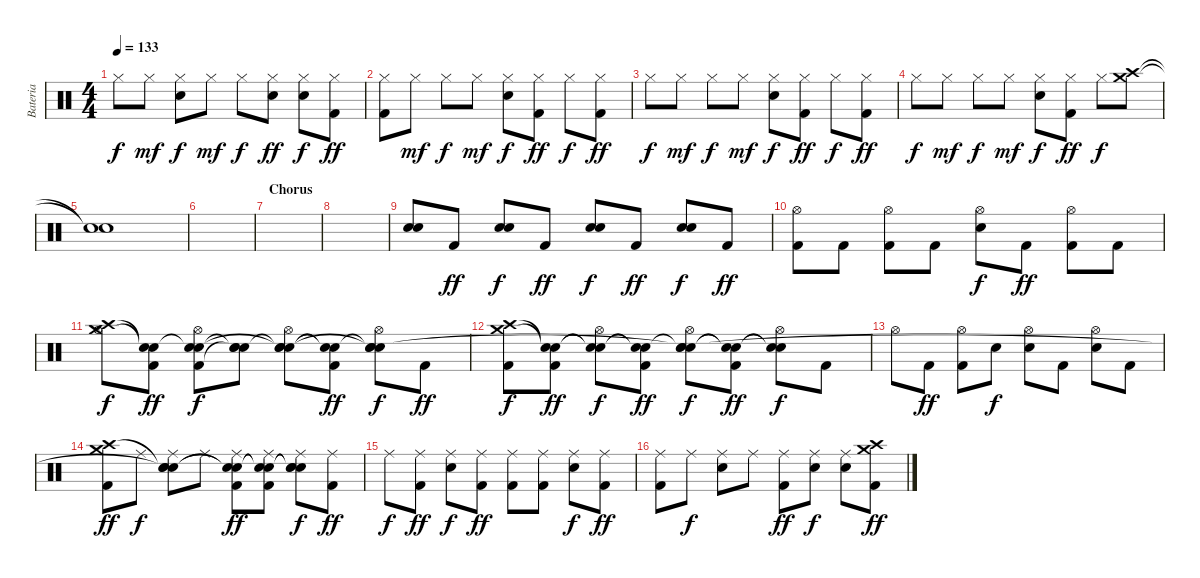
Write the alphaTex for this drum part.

\track ("Bateria" "Bateria") {instrument percussion}
\staff {score}
\articulation defaults
\ts (4 4)
\tempo 133
\clef neutral
\ks c "Hi-Hat (closed)".8{dy f} "Hi-Hat (closed)".8{dy mf}
("Hi-Hat (closed)" "Snare (hit) 2").8{dy f} "Hi-Hat (closed)".8{dy mf} "Hi-Hat (closed)".8{dy f} ("Hi-Hat (closed)" "Snare (hit) 2").8{dy ff} ("Hi-Hat (closed)" "Snare (hit) 2").8{dy f} ("Hi-Hat (closed)" "Kick (hit) 2").8{dy ff} |
("Hi-Hat (closed)" "Kick (hit) 2").8 "Hi-Hat (closed)".8{dy mf} "Hi-Hat (closed)".8{dy f} "Hi-Hat (closed)".8{dy mf} ("Hi-Hat (closed)" "Snare (hit) 2").8{dy f} ("Hi-Hat (closed)" "Kick (hit) 2").8{dy ff} "Hi-Hat (closed)".8{dy f} ("Hi-Hat (closed)" "Kick (hit) 2").8{dy ff} |
"Hi-Hat (closed)".8{dy f} "Hi-Hat (closed)".8{dy mf} "Hi-Hat (closed)".8{dy f} "Hi-Hat (closed)".8{dy mf} ("Hi-Hat (closed)" "Snare (hit) 2").8{dy f} ("Hi-Hat (closed)" "Kick (hit) 2").8{dy ff} "Hi-Hat (closed)".8{dy f} ("Hi-Hat (closed)" "Kick (hit) 2").8{dy ff} |
"Hi-Hat (closed)".8{dy f} "Hi-Hat (closed)".8{dy mf} "Hi-Hat (closed)".8{dy f} "Hi-Hat (closed)".8{dy mf} ("Hi-Hat (closed)" "Snare (hit) 2").8{dy f} ("Hi-Hat (closed)" "Kick (hit) 2").8{dy ff} "Hi-Hat (closed)".8{dy f} ("Crash medium (hit)" "Crash high (hit)").8 |
("Snare (hit)"{t} "Snare (hit)"{t}).1 |
|
\section ("" "Chorus")
|
|
("Snare (hit) 2" "Snare (hit) 2").8 "Kick (hit) 2".8{dy ff} ("Snare (hit) 2" "Snare (hit) 2").8{dy f} "Kick (hit) 2".8{dy ff} ("Snare (hit) 2" "Snare (hit) 2").8{dy f} "Kick (hit) 2".8{dy ff} ("Snare (hit) 2" "Snare (hit) 2").8{dy f} "Kick (hit) 2".8{dy ff} |
("Hi-Hat (open)" "Kick (hit) 2").8 "Kick (hit) 2".8 ("Hi-Hat (open)" "Kick (hit) 2").8 "Kick (hit) 2".8 ("Hi-Hat (open)" "Snare (hit) 2").8{dy f} "Kick (hit) 2".8{dy ff} ("Hi-Hat (open)" "Kick (hit) 2").8 "Kick (hit) 2".8 |
("Hi-Hat (open)" "Crash medium (hit)" "Crash high (hit)").8{dy f} ("Kick (hit) 2" "Snare (hit)"{t} "Snare (hit)"{t}).8{dy ff} ("Hi-Hat (open)" "Kick (hit) 2" "Snare (hit)"{t} "Snare (hit)").8{dy f} ("Snare (hit) 2" "Snare (hit)"{t} "Snare (hit)"{t}).8 ("Hi-Hat (open)" "Snare (hit) 2" "Snare (hit)"{t} "Snare (hit)"{t}).8 ("Kick (hit) 2" "Snare (hit)"{t} "Snare (hit)"{t}).8{dy ff} ("Hi-Hat (open)" "Snare (hit) 2" "Snare (hit)"{t} "Snare (hit)"{t}).8{dy f} "Kick (hit) 2".8{dy ff} |
("Kick (hit) 2" "Crash high (hit)" "Crash medium (hit)").8{dy f} ("Kick (hit) 2" "Snare (hit)"{t} "Snare (hit)"{t}).8{dy ff} ("Hi-Hat (open)" "Snare (hit)"{t} "Snare (hit)"{t}).8{dy f} ("Kick (hit) 2" "Snare (hit)"{t} "Snare (hit)"{t}).8{dy ff} ("Hi-Hat (open)" "Snare (hit) 2" "Snare (hit)"{t} "Snare (hit)"{t}).8{dy f} ("Kick (hit) 2" "Snare (hit)"{t} "Snare (hit)"{t}).8{dy ff} ("Hi-Hat (open)" "Snare (hit)"{t} "Snare (hit)"{t}).8{dy f} "Kick (hit) 2".8 |
"Hi-Hat (open)".8 "Kick (hit) 2".8{dy ff} ("Hi-Hat (open)" "Kick (hit) 2").8 "Snare (hit) 2".8{dy f} ("Hi-Hat (open)" "Snare (hit) 2").8 "Kick (hit) 2".8 ("Hi-Hat (open)" "Snare (hit) 2").8 "Kick (hit) 2".8 |
("Kick (hit) 2" "Crash medium (hit)" "Crash high (hit)").8{dy ff} "Ride (middle)".8{dy f} ("Ride (middle)" "Snare (hit) 2" "Snare (hit)"{t} "Snare (hit)"{t}).8 "Ride (middle)".8 ("Ride (middle)" "Kick (hit) 2" "Snare (hit)"{t} "Snare (hit)"{t}).8{dy ff} ("Ride (middle)" "Kick (hit) 2" "Snare (hit)"{t} "Snare (hit)"{t}).8 ("Ride (middle)" "Snare (hit) 2" "Snare (hit)"{t} "Snare (hit)"{t}).8{dy f} ("Ride (middle)" "Kick (hit) 2").8{dy ff} |
"Ride (middle)".8{dy f} ("Ride (middle)" "Kick (hit) 2").8{dy ff} ("Ride (middle)" "Snare (hit) 2").8{dy f} ("Ride (middle)" "Kick (hit) 2").8{dy ff} ("Ride (middle)" "Kick (hit) 2").8 ("Ride (middle)" "Kick (hit) 2").8 ("Ride (middle)" "Snare (hit) 2").8{dy f} ("Ride (middle)" "Kick (hit) 2").8{dy ff} |
("Ride (middle)" "Kick (hit) 2").8 "Ride (middle)".8{dy f} ("Ride (middle)" "Snare (hit) 2").8 "Ride (middle)".8 ("Ride (middle)" "Kick (hit) 2").8{dy ff} ("Ride (middle)" "Snare (hit) 2").8{dy f} ("Ride (middle)" "Snare (hit) 2").8 ("Kick (hit) 2" "Crash medium (hit)" "Crash high (hit)").8{dy ff}
